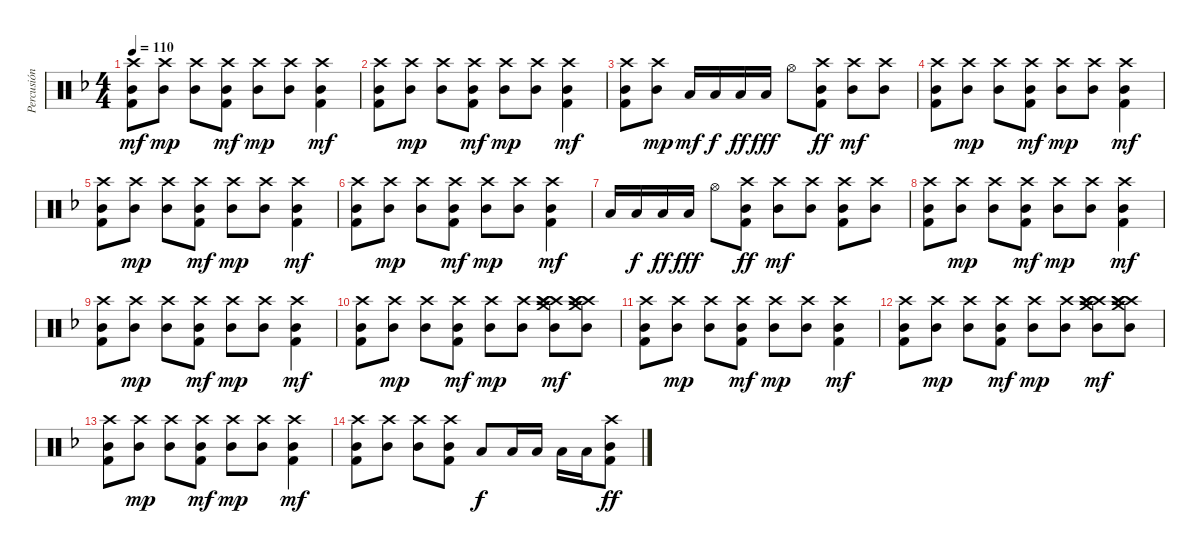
\track ("Percusión" "Percusión") {instrument percussion}
\staff {score}
\articulation defaults
\ts (4 4)
\tempo 110
\clef neutral
\ks f
("Kick (hit) 2" "Mid Tom (hit)" "Crash high (hit)").8{dy mf} ("Mid Tom (hit)" "Crash high (hit)").8{dy mp} ("Mid Tom (hit)" "Crash high (hit)").8 ("Kick (hit) 2" "Mid Tom (hit)" "Crash high (hit)").8{dy mf} ("Mid Tom (hit)" "Crash high (hit)").8{dy mp} ("Mid Tom (hit)" "Crash high (hit)").8 ("Kick (hit) 2" "Mid Tom (hit)" "Crash high (hit)").4{dy mf} |
("Kick (hit) 2" "Mid Tom (hit)" "Crash high (hit)").8 ("Mid Tom (hit)" "Crash high (hit)").8{dy mp} ("Mid Tom (hit)" "Crash high (hit)").8 ("Kick (hit) 2" "Mid Tom (hit)" "Crash high (hit)").8{dy mf} ("Mid Tom (hit)" "Crash high (hit)").8{dy mp} ("Mid Tom (hit)" "Crash high (hit)").8 ("Kick (hit) 2" "Mid Tom (hit)" "Crash high (hit)").4{dy mf} |
("Kick (hit) 2" "Mid Tom (hit)" "Crash high (hit)").8 ("Mid Tom (hit)" "Crash high (hit)").8{dy mp} "Low Tom (hit)".16{dy mf} "Low Tom (hit)".16{dy f} "Low Tom (hit)".16{dy ff} "Low Tom (hit)".16{dy fff} "Hi-Hat (open)".8 ("Kick (hit) 2" "Mid Tom (hit)" "Crash high (hit)").8{dy ff} ("Mid Tom (hit)" "Crash high (hit)").8{dy mf} ("Mid Tom (hit)" "Crash high (hit)").8 |
("Kick (hit) 2" "Mid Tom (hit)" "Crash high (hit)").8 ("Mid Tom (hit)" "Crash high (hit)").8{dy mp} ("Mid Tom (hit)" "Crash high (hit)").8 ("Kick (hit) 2" "Mid Tom (hit)" "Crash high (hit)").8{dy mf} ("Mid Tom (hit)" "Crash high (hit)").8{dy mp} ("Mid Tom (hit)" "Crash high (hit)").8 ("Kick (hit) 2" "Mid Tom (hit)" "Crash high (hit)").4{dy mf} |
("Kick (hit) 2" "Mid Tom (hit)" "Crash high (hit)").8 ("Mid Tom (hit)" "Crash high (hit)").8{dy mp} ("Mid Tom (hit)" "Crash high (hit)").8 ("Kick (hit) 2" "Mid Tom (hit)" "Crash high (hit)").8{dy mf} ("Mid Tom (hit)" "Crash high (hit)").8{dy mp} ("Mid Tom (hit)" "Crash high (hit)").8 ("Kick (hit) 2" "Mid Tom (hit)" "Crash high (hit)").4{dy mf} |
("Kick (hit) 2" "Mid Tom (hit)" "Crash high (hit)").8 ("Mid Tom (hit)" "Crash high (hit)").8{dy mp} ("Mid Tom (hit)" "Crash high (hit)").8 ("Kick (hit) 2" "Mid Tom (hit)" "Crash high (hit)").8{dy mf} ("Mid Tom (hit)" "Crash high (hit)").8{dy mp} ("Mid Tom (hit)" "Crash high (hit)").8 ("Kick (hit) 2" "Mid Tom (hit)" "Crash high (hit)").4{dy mf} |
"Low Tom (hit)".16 "Low Tom (hit)".16{dy f} "Low Tom (hit)".16{dy ff} "Low Tom (hit)".16{dy fff} "Hi-Hat (open)".8 ("Kick (hit) 2" "Mid Tom (hit)" "Crash high (hit)").8{dy ff} ("Mid Tom (hit)" "Crash high (hit)").8{dy mf} ("Mid Tom (hit)" "Crash high (hit)").8 ("Kick (hit) 2" "Mid Tom (hit)" "Crash high (hit)").8 ("Mid Tom (hit)" "Crash high (hit)").8 |
("Kick (hit) 2" "Mid Tom (hit)" "Crash high (hit)").8 ("Mid Tom (hit)" "Crash high (hit)").8{dy mp} ("Mid Tom (hit)" "Crash high (hit)").8 ("Kick (hit) 2" "Mid Tom (hit)" "Crash high (hit)").8{dy mf} ("Mid Tom (hit)" "Crash high (hit)").8{dy mp} ("Mid Tom (hit)" "Crash high (hit)").8 ("Kick (hit) 2" "Mid Tom (hit)" "Crash high (hit)").4{dy mf} |
("Kick (hit) 2" "Mid Tom (hit)" "Crash high (hit)").8 ("Mid Tom (hit)" "Crash high (hit)").8{dy mp} ("Mid Tom (hit)" "Crash high (hit)").8 ("Kick (hit) 2" "Mid Tom (hit)" "Crash high (hit)").8{dy mf} ("Mid Tom (hit)" "Crash high (hit)").8{dy mp} ("Mid Tom (hit)" "Crash high (hit)").8 ("Kick (hit) 2" "Mid Tom (hit)" "Crash high (hit)").4{dy mf} |
("Kick (hit) 2" "Mid Tom (hit)" "Crash high (hit)").8 ("Mid Tom (hit)" "Crash high (hit)").8{dy mp} ("Mid Tom (hit)" "Crash high (hit)").8 ("Kick (hit) 2" "Mid Tom (hit)" "Crash high (hit)").8{dy mf} ("Mid Tom (hit)" "Crash high (hit)").8{dy mp} ("Mid Tom (hit)" "Crash high (hit)").8 ("Crash high (hit)" "Crash high (hit)" "Crash medium (hit)" "Mid Tom (hit)" "Crash high (hit)").8{dy mf} ("Crash high (hit)" "Crash high (hit)" "Crash medium (hit)" "Mid Tom (hit)" "Crash high (hit)").8 |
("Kick (hit) 2" "Mid Tom (hit)" "Crash high (hit)").8 ("Mid Tom (hit)" "Crash high (hit)").8{dy mp} ("Mid Tom (hit)" "Crash high (hit)").8 ("Kick (hit) 2" "Mid Tom (hit)" "Crash high (hit)").8{dy mf} ("Mid Tom (hit)" "Crash high (hit)").8{dy mp} ("Mid Tom (hit)" "Crash high (hit)").8 ("Kick (hit) 2" "Mid Tom (hit)" "Crash high (hit)").4{dy mf} |
("Kick (hit) 2" "Mid Tom (hit)" "Crash high (hit)").8 ("Mid Tom (hit)" "Crash high (hit)").8{dy mp} ("Mid Tom (hit)" "Crash high (hit)").8 ("Kick (hit) 2" "Mid Tom (hit)" "Crash high (hit)").8{dy mf} ("Mid Tom (hit)" "Crash high (hit)").8{dy mp} ("Mid Tom (hit)" "Crash high (hit)").8 ("Crash high (hit)" "Crash high (hit)" "Crash medium (hit)" "Mid Tom (hit)" "Crash high (hit)").8{dy mf} ("Crash high (hit)" "Crash high (hit)" "Crash medium (hit)" "Mid Tom (hit)" "Crash high (hit)").8 |
("Kick (hit) 2" "Mid Tom (hit)" "Crash high (hit)").8 ("Mid Tom (hit)" "Crash high (hit)").8{dy mp} ("Mid Tom (hit)" "Crash high (hit)").8 ("Kick (hit) 2" "Mid Tom (hit)" "Crash high (hit)").8{dy mf} ("Mid Tom (hit)" "Crash high (hit)").8{dy mp} ("Mid Tom (hit)" "Crash high (hit)").8 ("Kick (hit) 2" "Mid Tom (hit)" "Crash high (hit)").4{dy mf} |
("Kick (hit) 2" "Mid Tom (hit)" "Crash high (hit)").8 ("Mid Tom (hit)" "Crash high (hit)").8 ("Mid Tom (hit)" "Crash high (hit)").8 ("Kick (hit) 2" "Mid Tom (hit)" "Crash high (hit)").8 "Low Tom (hit)".8{dy f} "Low Tom (hit)".16 "Low Tom (hit)".16 "Low Tom (hit)".16 "Low Tom (hit)".16 ("Kick (hit) 2" "Mid Tom (hit)" "Crash high (hit)").8{dy ff}
